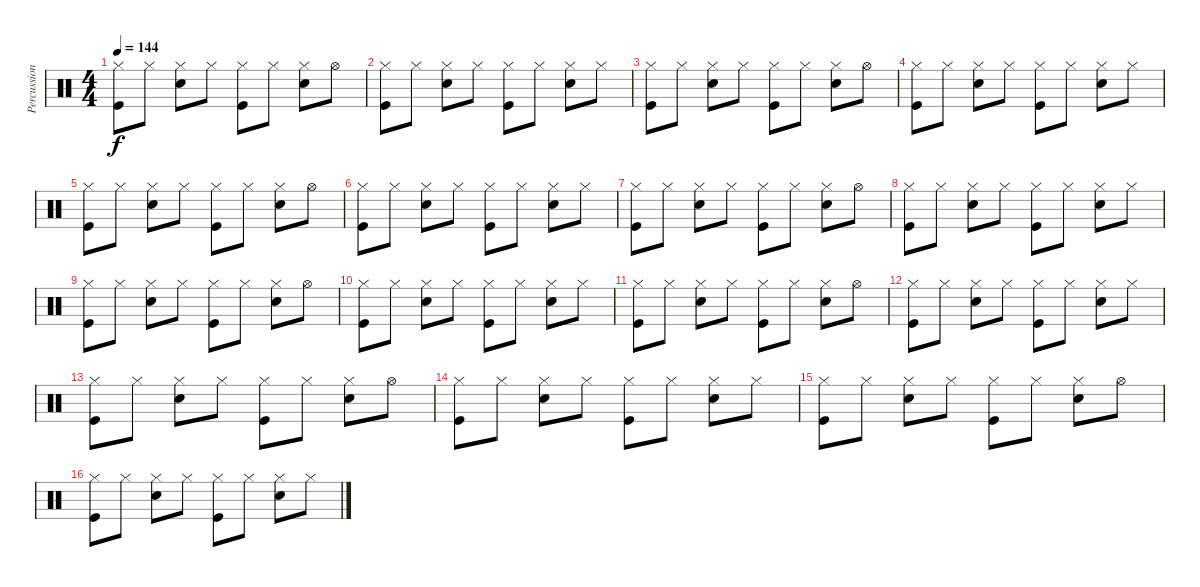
\track ("Percussion" "Percussion") {instrument percussion}
\staff {score}
\articulation defaults
\ts (4 4)
\tempo 144
\clef neutral
\ks c
("Hi-Hat (closed)" "Kick (hit)").8{dy f} "Hi-Hat (closed)".8 ("Hi-Hat (closed)" "Snare (hit) 2").8 "Hi-Hat (closed)".8 ("Hi-Hat (closed)" "Kick (hit)").8 "Hi-Hat (closed)".8 ("Hi-Hat (closed)" "Snare (hit) 2").8 "Hi-Hat (open)".8 |
("Hi-Hat (closed)" "Kick (hit)").8 "Hi-Hat (closed)".8 ("Hi-Hat (closed)" "Snare (hit) 2").8 "Hi-Hat (closed)".8 ("Hi-Hat (closed)" "Kick (hit)").8 "Hi-Hat (closed)".8 ("Hi-Hat (closed)" "Snare (hit) 2").8 "Hi-Hat (closed)".8 |
("Hi-Hat (closed)" "Kick (hit)").8 "Hi-Hat (closed)".8 ("Hi-Hat (closed)" "Snare (hit) 2").8 "Hi-Hat (closed)".8 ("Hi-Hat (closed)" "Kick (hit)").8 "Hi-Hat (closed)".8 ("Hi-Hat (closed)" "Snare (hit) 2").8 "Hi-Hat (open)".8 |
("Hi-Hat (closed)" "Kick (hit)").8 "Hi-Hat (closed)".8 ("Hi-Hat (closed)" "Snare (hit) 2").8 "Hi-Hat (closed)".8 ("Hi-Hat (closed)" "Kick (hit)").8 "Hi-Hat (closed)".8 ("Hi-Hat (closed)" "Snare (hit) 2").8 "Hi-Hat (closed)".8 |
("Hi-Hat (closed)" "Kick (hit)").8 "Hi-Hat (closed)".8 ("Hi-Hat (closed)" "Snare (hit) 2").8 "Hi-Hat (closed)".8 ("Hi-Hat (closed)" "Kick (hit)").8 "Hi-Hat (closed)".8 ("Hi-Hat (closed)" "Snare (hit) 2").8 "Hi-Hat (open)".8 |
("Hi-Hat (closed)" "Kick (hit)").8 "Hi-Hat (closed)".8 ("Hi-Hat (closed)" "Snare (hit) 2").8 "Hi-Hat (closed)".8 ("Hi-Hat (closed)" "Kick (hit)").8 "Hi-Hat (closed)".8 ("Hi-Hat (closed)" "Snare (hit) 2").8 "Hi-Hat (closed)".8 |
("Hi-Hat (closed)" "Kick (hit)").8 "Hi-Hat (closed)".8 ("Hi-Hat (closed)" "Snare (hit) 2").8 "Hi-Hat (closed)".8 ("Hi-Hat (closed)" "Kick (hit)").8 "Hi-Hat (closed)".8 ("Hi-Hat (closed)" "Snare (hit) 2").8 "Hi-Hat (open)".8 |
("Hi-Hat (closed)" "Kick (hit)").8 "Hi-Hat (closed)".8 ("Hi-Hat (closed)" "Snare (hit) 2").8 "Hi-Hat (closed)".8 ("Hi-Hat (closed)" "Kick (hit)").8 "Hi-Hat (closed)".8 ("Hi-Hat (closed)" "Snare (hit) 2").8 "Hi-Hat (closed)".8 |
("Hi-Hat (closed)" "Kick (hit)").8 "Hi-Hat (closed)".8 ("Hi-Hat (closed)" "Snare (hit) 2").8 "Hi-Hat (closed)".8 ("Hi-Hat (closed)" "Kick (hit)").8 "Hi-Hat (closed)".8 ("Hi-Hat (closed)" "Snare (hit) 2").8 "Hi-Hat (open)".8 |
("Hi-Hat (closed)" "Kick (hit)").8 "Hi-Hat (closed)".8 ("Hi-Hat (closed)" "Snare (hit) 2").8 "Hi-Hat (closed)".8 ("Hi-Hat (closed)" "Kick (hit)").8 "Hi-Hat (closed)".8 ("Hi-Hat (closed)" "Snare (hit) 2").8 "Hi-Hat (closed)".8 |
("Hi-Hat (closed)" "Kick (hit)").8 "Hi-Hat (closed)".8 ("Hi-Hat (closed)" "Snare (hit) 2").8 "Hi-Hat (closed)".8 ("Hi-Hat (closed)" "Kick (hit)").8 "Hi-Hat (closed)".8 ("Hi-Hat (closed)" "Snare (hit) 2").8 "Hi-Hat (open)".8 |
("Hi-Hat (closed)" "Kick (hit)").8 "Hi-Hat (closed)".8 ("Hi-Hat (closed)" "Snare (hit) 2").8 "Hi-Hat (closed)".8 ("Hi-Hat (closed)" "Kick (hit)").8 "Hi-Hat (closed)".8 ("Hi-Hat (closed)" "Snare (hit) 2").8 "Hi-Hat (closed)".8 |
("Hi-Hat (closed)" "Kick (hit)").8 "Hi-Hat (closed)".8 ("Hi-Hat (closed)" "Snare (hit) 2").8 "Hi-Hat (closed)".8 ("Hi-Hat (closed)" "Kick (hit)").8 "Hi-Hat (closed)".8 ("Hi-Hat (closed)" "Snare (hit) 2").8 "Hi-Hat (open)".8 |
("Hi-Hat (closed)" "Kick (hit)").8 "Hi-Hat (closed)".8 ("Hi-Hat (closed)" "Snare (hit) 2").8 "Hi-Hat (closed)".8 ("Hi-Hat (closed)" "Kick (hit)").8 "Hi-Hat (closed)".8 ("Hi-Hat (closed)" "Snare (hit) 2").8 "Hi-Hat (closed)".8 |
("Hi-Hat (closed)" "Kick (hit)").8 "Hi-Hat (closed)".8 ("Hi-Hat (closed)" "Snare (hit) 2").8 "Hi-Hat (closed)".8 ("Hi-Hat (closed)" "Kick (hit)").8 "Hi-Hat (closed)".8 ("Hi-Hat (closed)" "Snare (hit) 2").8 "Hi-Hat (open)".8 |
("Hi-Hat (closed)" "Kick (hit)").8 "Hi-Hat (closed)".8 ("Hi-Hat (closed)" "Snare (hit) 2").8 "Hi-Hat (closed)".8 ("Hi-Hat (closed)" "Kick (hit)").8 "Hi-Hat (closed)".8 ("Hi-Hat (closed)" "Snare (hit) 2").8 "Hi-Hat (closed)".8
